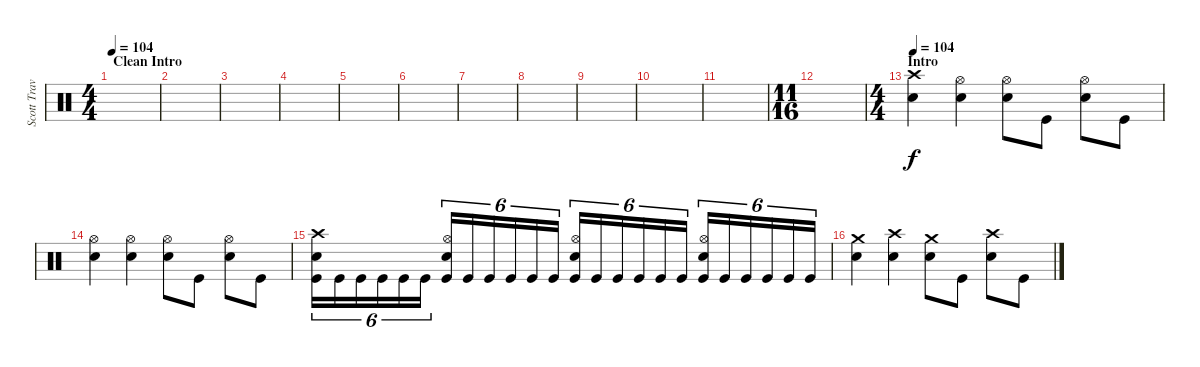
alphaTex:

\track ("Scott Travis" "Scott Trav") {instrument percussion}
\staff {score}
\articulation defaults
\ts (4 4)
\section ("" "Clean Intro")
\tempo 104
\tempo 77
\tempo 104
\clef neutral
\ks c
|
|
|
|
|
|
|
|
|
|
|
\ts (11 16)
|
\ts (4 4)
\section ("" "Intro")
\tempo 104
("Crash high (hit)" "Electric Snare (hit)").4 ("Hi-Hat (open)" "Electric Snare (hit)").4 ("Hi-Hat (open)" "Electric Snare (hit)").8 "Kick (hit)".8 ("Hi-Hat (open)" "Electric Snare (hit)").8 "Kick (hit)".8 |
("Hi-Hat (open)" "Electric Snare (hit)").4 ("Hi-Hat (open)" "Electric Snare (hit)").4 ("Hi-Hat (open)" "Electric Snare (hit)").8 "Kick (hit)".8 ("Hi-Hat (open)" "Electric Snare (hit)").8 "Kick (hit)".8 |
("Crash high (hit)" "Electric Snare (hit)" "Kick (hit)").16{tu (6 4)} "Kick (hit)".16{tu (6 4)} "Kick (hit)".16{tu (6 4)} "Kick (hit)".16{tu (6 4)} "Kick (hit)".16{tu (6 4)} "Kick (hit)".16{tu (6 4)} ("Hi-Hat (open)" "Electric Snare (hit)" "Kick (hit)").16{tu (6 4)} "Kick (hit)".16{tu (6 4)} "Kick (hit)".16{tu (6 4)} "Kick (hit)".16{tu (6 4)} "Kick (hit)".16{tu (6 4)} "Kick (hit)".16{tu (6 4)} ("Hi-Hat (open)" "Electric Snare (hit)" "Kick (hit)").16{tu (6 4)} "Kick (hit)".16{tu (6 4)} "Kick (hit)".16{tu (6 4)} "Kick (hit)".16{tu (6 4)} "Kick (hit)".16{tu (6 4)} "Kick (hit)".16{tu (6 4)} ("Hi-Hat (open)" "Electric Snare (hit)" "Kick (hit)").16{tu (6 4)} "Kick (hit)".16{tu (6 4)} "Kick (hit)".16{tu (6 4)} "Kick (hit)".16{tu (6 4)} "Kick (hit)".16{tu (6 4)} "Kick (hit)".16{tu (6 4)} |
("Crash medium (hit)" "Electric Snare (hit)").4 ("Crash high (hit)" "Electric Snare (hit)").4 ("Crash medium (hit)" "Electric Snare (hit)").8 "Kick (hit)".8 ("Crash high (hit)" "Electric Snare (hit)").8 "Kick (hit)".8
